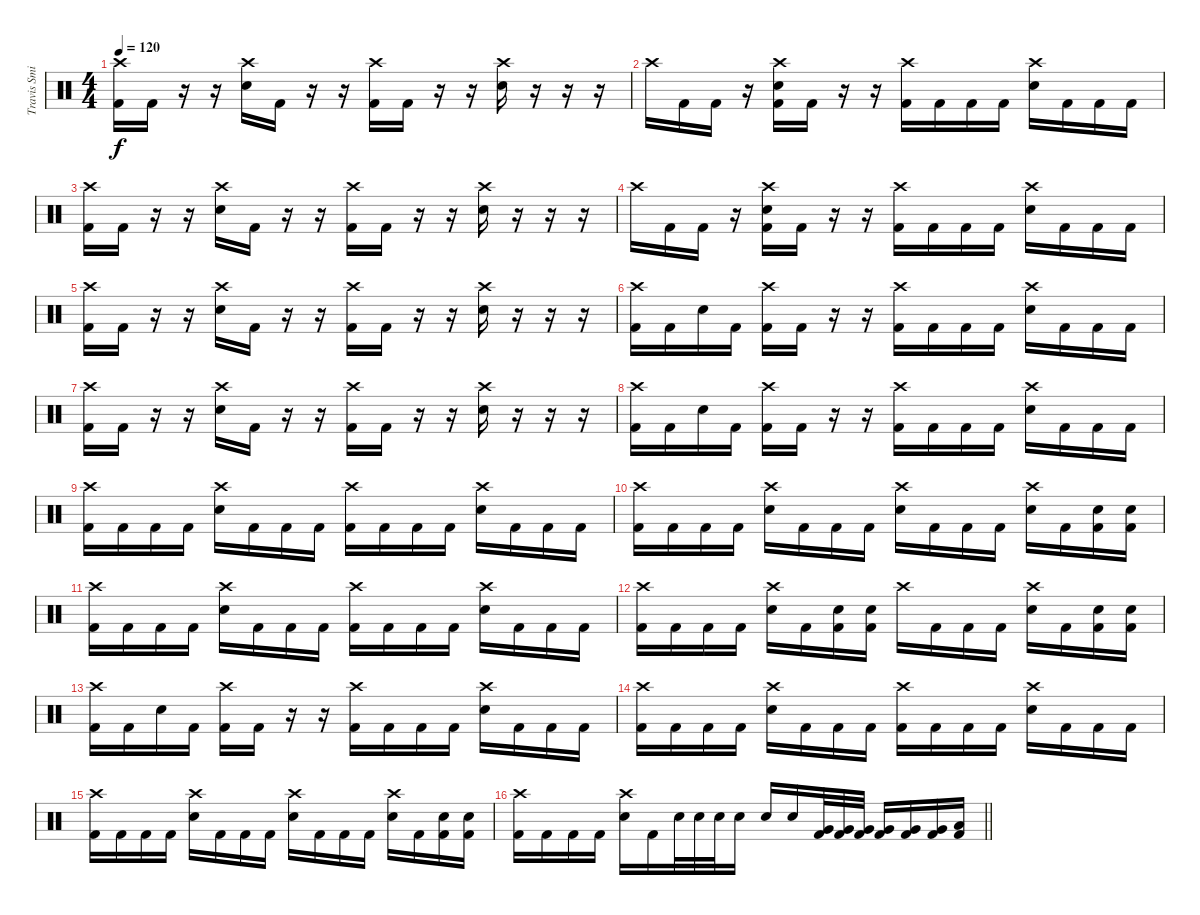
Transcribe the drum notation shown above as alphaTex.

\track ("Travis Smith" "Travis Smi") {instrument percussion}
\staff {score}
\articulation defaults
\ts (4 4)
\tempo 120
\clef neutral
\ks c
("Crash high (hit)" "Kick (hit) 2").16{dy f} "Kick (hit) 2".16 r.16 r.16 ("Crash high (hit)" "Electric Snare (hit)").16 "Kick (hit) 2".16 r.16 r.16 ("Crash high (hit)" "Kick (hit) 2").16 "Kick (hit) 2".16 r.16 r.16 ("Crash high (hit)" "Electric Snare (hit)").16 r.16 r.16 r.16 |
"Crash high (hit)".16 "Kick (hit) 2".16 "Kick (hit) 2".16 r.16 ("Crash high (hit)" "Electric Snare (hit)" "Kick (hit) 2").16 "Kick (hit) 2".16 r.16 r.16 ("Crash high (hit)" "Kick (hit) 2").16 "Kick (hit) 2".16 "Kick (hit) 2".16 "Kick (hit) 2".16 ("Crash high (hit)" "Electric Snare (hit)").16 "Kick (hit) 2".16 "Kick (hit) 2".16 "Kick (hit) 2".16 |
("Crash high (hit)" "Kick (hit) 2").16 "Kick (hit) 2".16 r.16 r.16 ("Crash high (hit)" "Electric Snare (hit)").16 "Kick (hit) 2".16 r.16 r.16 ("Crash high (hit)" "Kick (hit) 2").16 "Kick (hit) 2".16 r.16 r.16 ("Crash high (hit)" "Electric Snare (hit)").16 r.16 r.16 r.16 |
"Crash high (hit)".16 "Kick (hit) 2".16 "Kick (hit) 2".16 r.16 ("Crash high (hit)" "Electric Snare (hit)" "Kick (hit) 2").16 "Kick (hit) 2".16 r.16 r.16 ("Crash high (hit)" "Kick (hit) 2").16 "Kick (hit) 2".16 "Kick (hit) 2".16 "Kick (hit) 2".16 ("Crash high (hit)" "Electric Snare (hit)").16 "Kick (hit) 2".16 "Kick (hit) 2".16 "Kick (hit) 2".16 |
("Crash high (hit)" "Kick (hit) 2").16 "Kick (hit) 2".16 r.16 r.16 ("Crash high (hit)" "Electric Snare (hit)").16 "Kick (hit) 2".16 r.16 r.16 ("Crash high (hit)" "Kick (hit) 2").16 "Kick (hit) 2".16 r.16 r.16 ("Crash high (hit)" "Electric Snare (hit)").16 r.16 r.16 r.16 |
("Crash high (hit)" "Kick (hit) 2").16 "Kick (hit) 2".16 "Electric Snare (hit)".16 "Kick (hit) 2".16 ("Crash high (hit)" "Kick (hit) 2").16 "Kick (hit) 2".16 r.16 r.16 ("Crash high (hit)" "Kick (hit) 2").16 "Kick (hit) 2".16 "Kick (hit) 2".16 "Kick (hit) 2".16 ("Crash high (hit)" "Electric Snare (hit)").16 "Kick (hit) 2".16 "Kick (hit) 2".16 "Kick (hit) 2".16 |
("Crash high (hit)" "Kick (hit) 2").16 "Kick (hit) 2".16 r.16 r.16 ("Crash high (hit)" "Electric Snare (hit)").16 "Kick (hit) 2".16 r.16 r.16 ("Crash high (hit)" "Kick (hit) 2").16 "Kick (hit) 2".16 r.16 r.16 ("Crash high (hit)" "Electric Snare (hit)").16 r.16 r.16 r.16 |
("Crash high (hit)" "Kick (hit) 2").16 "Kick (hit) 2".16 "Electric Snare (hit)".16 "Kick (hit) 2".16 ("Crash high (hit)" "Kick (hit) 2").16 "Kick (hit) 2".16 r.16 r.16 ("Crash high (hit)" "Kick (hit) 2").16 "Kick (hit) 2".16 "Kick (hit) 2".16 "Kick (hit) 2".16 ("Crash high (hit)" "Electric Snare (hit)").16 "Kick (hit) 2".16 "Kick (hit) 2".16 "Kick (hit) 2".16 |
("Crash high (hit)" "Kick (hit) 2").16 "Kick (hit) 2".16 "Kick (hit) 2".16 "Kick (hit) 2".16 ("Crash high (hit)" "Electric Snare (hit)").16 "Kick (hit) 2".16 "Kick (hit) 2".16 "Kick (hit) 2".16 ("Crash high (hit)" "Kick (hit) 2").16 "Kick (hit) 2".16 "Kick (hit) 2".16 "Kick (hit) 2".16 ("Crash high (hit)" "Electric Snare (hit)").16 "Kick (hit) 2".16 "Kick (hit) 2".16 "Kick (hit) 2".16 |
("Crash high (hit)" "Kick (hit) 2").16 "Kick (hit) 2".16 "Kick (hit) 2".16 "Kick (hit) 2".16 ("Crash high (hit)" "Electric Snare (hit)").16 "Kick (hit) 2".16 "Kick (hit) 2".16 "Kick (hit) 2".16 ("Crash high (hit)" "Electric Snare (hit)").16 "Kick (hit) 2".16 "Kick (hit) 2".16 "Kick (hit) 2".16 ("Crash high (hit)" "Electric Snare (hit)").16 "Kick (hit) 2".16 ("Electric Snare (hit)" "Kick (hit) 2").16 ("Electric Snare (hit)" "Kick (hit) 2").16 |
("Crash high (hit)" "Kick (hit) 2").16 "Kick (hit) 2".16 "Kick (hit) 2".16 "Kick (hit) 2".16 ("Crash high (hit)" "Electric Snare (hit)").16 "Kick (hit) 2".16 "Kick (hit) 2".16 "Kick (hit) 2".16 ("Crash high (hit)" "Kick (hit) 2").16 "Kick (hit) 2".16 "Kick (hit) 2".16 "Kick (hit) 2".16 ("Crash high (hit)" "Electric Snare (hit)").16 "Kick (hit) 2".16 "Kick (hit) 2".16 "Kick (hit) 2".16 |
("Crash high (hit)" "Kick (hit) 2").16 "Kick (hit) 2".16 "Kick (hit) 2".16 "Kick (hit) 2".16 ("Crash high (hit)" "Electric Snare (hit)").16 "Kick (hit) 2".16 ("Electric Snare (hit)" "Kick (hit) 2").16 ("Electric Snare (hit)" "Kick (hit) 2").16 "Crash high (hit)".16 "Kick (hit) 2".16 "Kick (hit) 2".16 "Kick (hit) 2".16 ("Crash high (hit)" "Electric Snare (hit)").16 "Kick (hit) 2".16 ("Electric Snare (hit)" "Kick (hit) 2").16 ("Electric Snare (hit)" "Kick (hit) 2").16 |
("Crash high (hit)" "Kick (hit) 2").16 "Kick (hit) 2".16 "Electric Snare (hit)".16 "Kick (hit) 2".16 ("Crash high (hit)" "Kick (hit) 2").16 "Kick (hit) 2".16 r.16 r.16 ("Crash high (hit)" "Kick (hit) 2").16 "Kick (hit) 2".16 "Kick (hit) 2".16 "Kick (hit) 2".16 ("Crash high (hit)" "Electric Snare (hit)").16 "Kick (hit) 2".16 "Kick (hit) 2".16 "Kick (hit) 2".16 |
("Crash high (hit)" "Kick (hit) 2").16 "Kick (hit) 2".16 "Kick (hit) 2".16 "Kick (hit) 2".16 ("Crash high (hit)" "Electric Snare (hit)").16 "Kick (hit) 2".16 "Kick (hit) 2".16 "Kick (hit) 2".16 ("Crash high (hit)" "Kick (hit) 2").16 "Kick (hit) 2".16 "Kick (hit) 2".16 "Kick (hit) 2".16 ("Crash high (hit)" "Electric Snare (hit)").16 "Kick (hit) 2".16 "Kick (hit) 2".16 "Kick (hit) 2".16 |
("Crash high (hit)" "Kick (hit) 2").16 "Kick (hit) 2".16 "Kick (hit) 2".16 "Kick (hit) 2".16 ("Crash high (hit)" "Electric Snare (hit)").16 "Kick (hit) 2".16 "Kick (hit) 2".16 "Kick (hit) 2".16 ("Crash high (hit)" "Electric Snare (hit)").16 "Kick (hit) 2".16 "Kick (hit) 2".16 "Kick (hit) 2".16 ("Crash high (hit)" "Electric Snare (hit)").16 "Kick (hit) 2".16 ("Electric Snare (hit)" "Kick (hit) 2").16 ("Electric Snare (hit)" "Kick (hit) 2").16 |
\barLineRight lightlight
("Crash high (hit)" "Kick (hit) 2").16 "Kick (hit) 2".16 "Kick (hit) 2".16 "Kick (hit) 2".16 ("Crash high (hit)" "Electric Snare (hit)").16 "Kick (hit) 2".16 "Electric Snare (hit)".32 "Electric Snare (hit)".32 "Electric Snare (hit)".32 "Electric Snare (hit)".16 "Electric Snare (hit)".16 "Electric Snare (hit)".16 ("Very Low Tom (hit)" "Kick (hit) 2").32 ("Very Low Tom (hit)" "Kick (hit) 2").32 ("Very Low Tom (hit)" "Kick (hit) 2").32 ("Very Low Tom (hit)" "Kick (hit) 2").16 ("Very Low Tom (hit)" "Kick (hit) 2").16 ("Very Low Tom (hit)" "Kick (hit) 2").16 ("Low Floor Tom (hit)" "Kick (hit) 2").16
